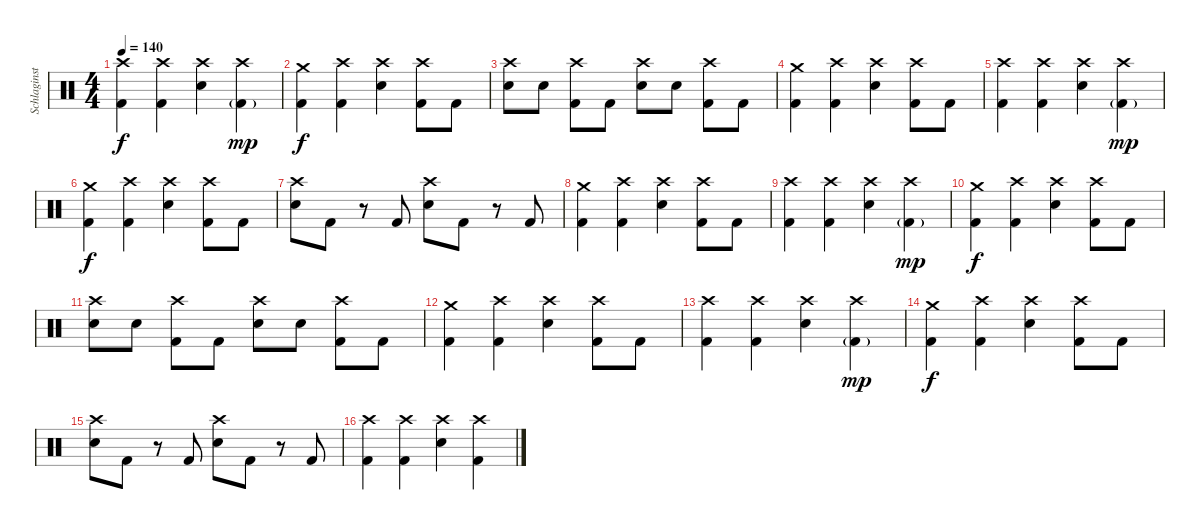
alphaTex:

\track ("Schlaginstrumente - Auswahl" "Schlaginst") {instrument percussion}
\staff {score}
\articulation defaults
\ts (4 4)
\tempo 140
\clef neutral
\ks c
("Crash high (hit)" "Kick (hit) 2").4{dy f} ("Crash high (hit)" "Kick (hit) 2").4 ("Crash high (hit)" "Electric Snare (hit)").4 ("Crash high (hit)" "Kick (hit) 2"{g}).4{dy mp} |
("Crash medium (hit)" "Kick (hit) 2").4{dy f} ("Crash high (hit)" "Kick (hit) 2").4 ("Crash high (hit)" "Electric Snare (hit)").4 ("Crash high (hit)" "Kick (hit) 2").8 "Kick (hit) 2".8 |
("Crash high (hit)" "Electric Snare (hit)").8 "Electric Snare (hit)".8 ("Crash high (hit)" "Kick (hit) 2").8 "Kick (hit) 2".8 ("Crash high (hit)" "Electric Snare (hit)").8 "Electric Snare (hit)".8 ("Crash high (hit)" "Kick (hit) 2").8 "Kick (hit) 2".8 |
("Crash medium (hit)" "Kick (hit) 2").4 ("Crash high (hit)" "Kick (hit) 2").4 ("Crash high (hit)" "Electric Snare (hit)").4 ("Crash high (hit)" "Kick (hit) 2").8 "Kick (hit) 2".8 |
("Crash high (hit)" "Kick (hit) 2").4 ("Crash high (hit)" "Kick (hit) 2").4 ("Crash high (hit)" "Electric Snare (hit)").4 ("Crash high (hit)" "Kick (hit) 2"{g}).4{dy mp} |
("Crash medium (hit)" "Kick (hit) 2").4{dy f} ("Crash high (hit)" "Kick (hit) 2").4 ("Crash high (hit)" "Electric Snare (hit)").4 ("Crash high (hit)" "Kick (hit) 2").8 "Kick (hit) 2".8 |
("Crash high (hit)" "Electric Snare (hit)").8 "Kick (hit) 2".8 r.8 "Kick (hit) 2".8 ("Crash high (hit)" "Electric Snare (hit)").8 "Kick (hit) 2".8 r.8 "Kick (hit) 2".8 |
("Crash medium (hit)" "Kick (hit) 2").4 ("Crash high (hit)" "Kick (hit) 2").4 ("Crash high (hit)" "Electric Snare (hit)").4 ("Crash high (hit)" "Kick (hit) 2").8 "Kick (hit) 2".8 |
("Crash high (hit)" "Kick (hit) 2").4 ("Crash high (hit)" "Kick (hit) 2").4 ("Crash high (hit)" "Electric Snare (hit)").4 ("Crash high (hit)" "Kick (hit) 2"{g}).4{dy mp} |
("Crash medium (hit)" "Kick (hit) 2").4{dy f} ("Crash high (hit)" "Kick (hit) 2").4 ("Crash high (hit)" "Electric Snare (hit)").4 ("Crash high (hit)" "Kick (hit) 2").8 "Kick (hit) 2".8 |
("Crash high (hit)" "Electric Snare (hit)").8 "Electric Snare (hit)".8 ("Crash high (hit)" "Kick (hit) 2").8 "Kick (hit) 2".8 ("Crash high (hit)" "Electric Snare (hit)").8 "Electric Snare (hit)".8 ("Crash high (hit)" "Kick (hit) 2").8 "Kick (hit) 2".8 |
("Crash medium (hit)" "Kick (hit) 2").4 ("Crash high (hit)" "Kick (hit) 2").4 ("Crash high (hit)" "Electric Snare (hit)").4 ("Crash high (hit)" "Kick (hit) 2").8 "Kick (hit) 2".8 |
("Crash high (hit)" "Kick (hit) 2").4 ("Crash high (hit)" "Kick (hit) 2").4 ("Crash high (hit)" "Electric Snare (hit)").4 ("Crash high (hit)" "Kick (hit) 2"{g}).4{dy mp} |
("Crash medium (hit)" "Kick (hit) 2").4{dy f} ("Crash high (hit)" "Kick (hit) 2").4 ("Crash high (hit)" "Electric Snare (hit)").4 ("Crash high (hit)" "Kick (hit) 2").8 "Kick (hit) 2".8 |
("Crash high (hit)" "Electric Snare (hit)").8 "Kick (hit) 2".8 r.8 "Kick (hit) 2".8 ("Crash high (hit)" "Electric Snare (hit)").8 "Kick (hit) 2".8 r.8 "Kick (hit) 2".8 |
("Crash high (hit)" "Kick (hit) 2").4 ("Crash high (hit)" "Kick (hit) 2").4 ("Crash high (hit)" "Electric Snare (hit)").4 ("Crash high (hit)" "Kick (hit) 2").4
